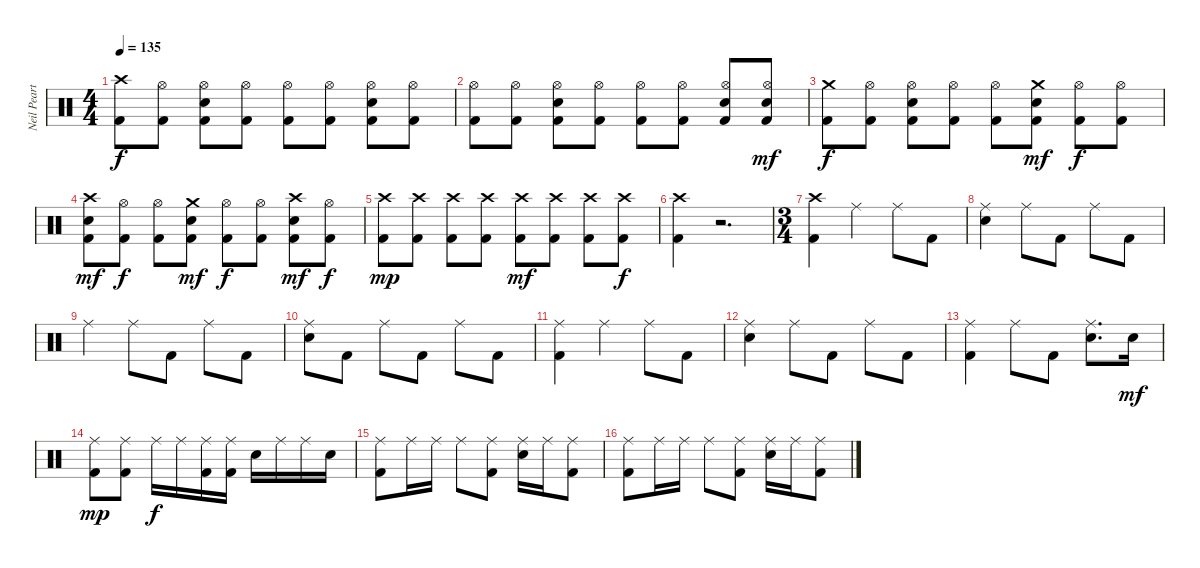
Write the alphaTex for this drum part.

\track ("Neil Peart" "Neil Peart") {instrument percussion}
\staff {score}
\articulation defaults
\ts (4 4)
\tempo 135
\clef neutral
\ks c
("Crash high (hit)" "Kick (hit) 2").8{dy f} ("Hi-Hat (open)" "Kick (hit) 2").8 ("Hi-Hat (open)" "Snare (hit) 2" "Kick (hit) 2").8 ("Hi-Hat (open)" "Kick (hit) 2").8 ("Hi-Hat (open)" "Kick (hit) 2").8 ("Hi-Hat (open)" "Kick (hit) 2").8 ("Hi-Hat (open)" "Snare (hit) 2" "Kick (hit) 2").8 ("Hi-Hat (open)" "Kick (hit) 2").8 |
("Hi-Hat (open)" "Kick (hit) 2").8 ("Hi-Hat (open)" "Kick (hit) 2").8 ("Hi-Hat (open)" "Snare (hit) 2" "Kick (hit) 2").8 ("Hi-Hat (open)" "Kick (hit) 2").8 ("Hi-Hat (open)" "Kick (hit) 2").8 ("Hi-Hat (open)" "Kick (hit) 2").8 ("Hi-Hat (open)" "Snare (hit) 2" "Kick (hit) 2").8 ("Hi-Hat (open)" "Snare (hit) 2" "Kick (hit) 2").8{dy mf} |
("Crash medium (hit)" "Kick (hit) 2").8{dy f} ("Hi-Hat (open)" "Kick (hit) 2").8 ("Hi-Hat (open)" "Snare (hit) 2" "Kick (hit) 2").8 ("Hi-Hat (open)" "Kick (hit) 2").8 ("Hi-Hat (open)" "Kick (hit) 2").8 ("Crash medium (hit)" "Snare (hit) 2" "Kick (hit) 2").8{dy mf} ("Hi-Hat (open)" "Kick (hit) 2").8{dy f} ("Hi-Hat (open)" "Kick (hit) 2").8 |
("Crash high (hit)" "Snare (hit) 2" "Kick (hit) 2").8{dy mf} ("Hi-Hat (open)" "Kick (hit) 2").8{dy f} ("Hi-Hat (open)" "Kick (hit) 2").8 ("Crash medium (hit)" "Snare (hit) 2" "Kick (hit) 2").8{dy mf} ("Hi-Hat (open)" "Kick (hit) 2").8{dy f} ("Hi-Hat (open)" "Kick (hit) 2").8 ("Crash high (hit)" "Snare (hit) 2" "Kick (hit) 2").8{dy mf} ("Hi-Hat (open)" "Kick (hit) 2").8{dy f} |
("Crash high (hit)" "Kick (hit) 2").8{dy mp} ("Crash high (hit)" "Kick (hit) 2").8 ("Crash high (hit)" "Kick (hit) 2").8 ("Crash high (hit)" "Kick (hit) 2").8 ("Crash high (hit)" "Kick (hit) 2").8{dy mf} ("Crash high (hit)" "Kick (hit) 2").8 ("Crash high (hit)" "Kick (hit) 2").8 ("Crash high (hit)" "Kick (hit) 2").8{dy f} |
("Crash high (hit)" "Kick (hit) 2").4 r.2{d volume 0} |
\ts (3 4)
("Crash high (hit)" "Kick (hit) 2").4{volume 14} "Ride (middle)".4 "Ride (middle)".8 "Kick (hit) 2".8 |
("Ride (middle)" "Snare (hit) 2").4 "Ride (middle)".8 "Kick (hit) 2".8 "Ride (middle)".8 "Kick (hit) 2".8 |
"Ride (middle)".4 "Ride (middle)".8 "Kick (hit) 2".8 "Ride (middle)".8 "Kick (hit) 2".8 |
("Ride (middle)" "Snare (hit) 2").8 "Kick (hit) 2".8 "Ride (middle)".8 "Kick (hit) 2".8 "Ride (middle)".8 "Kick (hit) 2".8 |
("Ride (middle)" "Kick (hit) 2").4 "Ride (middle)".4 "Ride (middle)".8 "Kick (hit) 2".8 |
("Ride (middle)" "Snare (hit) 2").4 "Ride (middle)".8 "Kick (hit) 2".8 "Ride (middle)".8 "Kick (hit) 2".8 |
("Ride (middle)" "Kick (hit) 2").4 "Ride (middle)".8 "Kick (hit) 2".8 ("Ride (middle)" "Snare (hit) 2").8{d} "Snare (hit) 2".16{dy mf} |
("Ride (middle)" "Kick (hit) 2").8{dy mp} ("Ride (middle)" "Kick (hit) 2").8 "Ride (middle)".16{dy f} "Ride (middle)".16 ("Ride (middle)" "Kick (hit) 2").16 ("Ride (middle)" "Kick (hit) 2").16 "Snare (hit) 2".16 "Ride (middle)".16 "Ride (middle)".16 "Snare (hit) 2".16 |
("Ride (middle)" "Kick (hit) 2").8 "Ride (middle)".16 "Ride (middle)".16 "Ride (middle)".8 ("Ride (middle)" "Kick (hit) 2").8 ("Ride (middle)" "Snare (hit) 2").16 "Ride (middle)".16 ("Ride (middle)" "Kick (hit) 2").8 |
("Ride (middle)" "Kick (hit) 2").8 "Ride (middle)".16 "Ride (middle)".16 "Ride (middle)".8 ("Ride (middle)" "Kick (hit) 2").8 ("Ride (middle)" "Snare (hit) 2").16 "Ride (middle)".16 ("Ride (middle)" "Kick (hit) 2").8
